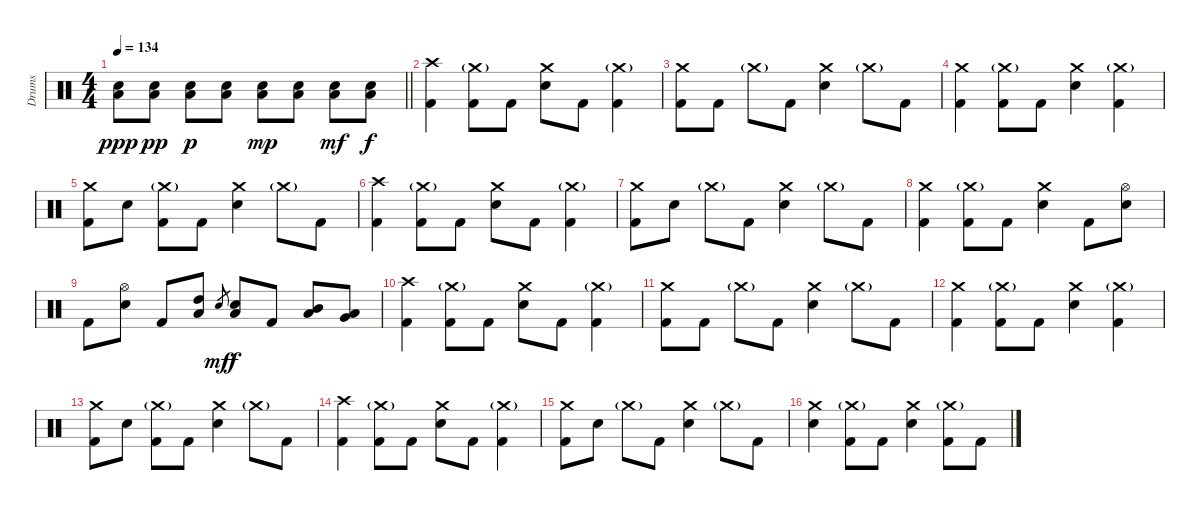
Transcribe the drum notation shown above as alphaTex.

\track ("Drums" "Drums") {instrument percussion}
\staff {score}
\articulation defaults
\ts (4 4)
\tempo 134
\clef neutral
\barLineRight lightlight
\ks c
("Low Tom (hit)" "Snare (hit) 2").8{dy ppp} ("Low Tom (hit)" "Snare (hit) 2").8{dy pp} ("Low Tom (hit)" "Snare (hit) 2").8{dy p} ("Low Tom (hit)" "Snare (hit) 2").8 ("Low Tom (hit)" "Snare (hit) 2").8{dy mp} ("Low Tom (hit)" "Snare (hit) 2").8 ("Low Tom (hit)" "Snare (hit) 2").8{dy mf} ("Low Tom (hit)" "Snare (hit) 2").8{dy f} |
("Crash high (hit)" "Kick (hit) 2").4 ("Crash medium (hit)"{g} "Kick (hit) 2").8 "Kick (hit) 2".8 ("Crash medium (hit)" "Snare (hit) 2").8 "Kick (hit) 2".8 ("Crash medium (hit)"{g} "Kick (hit) 2").4 |
("Crash medium (hit)" "Kick (hit) 2").8 "Kick (hit) 2".8 "Crash medium (hit)"{g}.8 "Kick (hit) 2".8 ("Crash medium (hit)" "Snare (hit) 2").4 "Crash medium (hit)"{g}.8 "Kick (hit) 2".8 |
("Crash medium (hit)" "Kick (hit) 2").4 ("Crash medium (hit)"{g} "Kick (hit) 2").8 "Kick (hit) 2".8 ("Crash medium (hit)" "Snare (hit) 2").4 ("Crash medium (hit)"{g} "Kick (hit) 2").4 |
("Crash medium (hit)" "Kick (hit) 2").8 "Snare (hit) 2".8 ("Crash medium (hit)"{g} "Kick (hit) 2").8 "Kick (hit) 2".8 ("Crash medium (hit)" "Snare (hit) 2").4 "Crash medium (hit)"{g}.8 "Kick (hit) 2".8 |
("Crash high (hit)" "Kick (hit) 2").4 ("Crash medium (hit)"{g} "Kick (hit) 2").8 "Kick (hit) 2".8 ("Crash medium (hit)" "Snare (hit) 2").8 "Kick (hit) 2".8 ("Crash medium (hit)"{g} "Kick (hit) 2").4 |
("Crash medium (hit)" "Kick (hit) 2").8 "Snare (hit) 2".8 "Crash medium (hit)"{g}.8 "Kick (hit) 2".8 ("Crash medium (hit)" "Snare (hit) 2").4 "Crash medium (hit)"{g}.8 "Kick (hit) 2".8 |
("Crash medium (hit)" "Kick (hit) 2").4 ("Crash medium (hit)"{g} "Kick (hit) 2").8 "Kick (hit) 2".8 ("Crash medium (hit)" "Snare (hit) 2").4 "Kick (hit) 2".8 ("Hi-Hat (open)" "Snare (hit) 2").8 |
"Kick (hit) 2".8 ("Hi-Hat (open)" "Snare (hit) 2").8 "Kick (hit) 2".8 ("High Tom (hit)" "Low Tom (hit)").8 "Snare (hit)".8{gr dy mf} ("Low Tom (hit)" "Snare (hit) 2").8{dy f} "Kick (hit) 2".8 ("Mid Tom (hit)" "Low Tom (hit)").8 ("Low Tom (hit)" "Very Low Tom (hit)").8 |
("Crash high (hit)" "Kick (hit) 2").4 ("Crash medium (hit)"{g} "Kick (hit) 2").8 "Kick (hit) 2".8 ("Crash medium (hit)" "Snare (hit) 2").8 "Kick (hit) 2".8 ("Crash medium (hit)"{g} "Kick (hit) 2").4 |
("Crash medium (hit)" "Kick (hit) 2").8 "Kick (hit) 2".8 "Crash medium (hit)"{g}.8 "Kick (hit) 2".8 ("Crash medium (hit)" "Snare (hit) 2").4 "Crash medium (hit)"{g}.8 "Kick (hit) 2".8 |
("Crash medium (hit)" "Kick (hit) 2").4 ("Crash medium (hit)"{g} "Kick (hit) 2").8 "Kick (hit) 2".8 ("Crash medium (hit)" "Snare (hit) 2").4 ("Crash medium (hit)"{g} "Kick (hit) 2").4 |
("Crash medium (hit)" "Kick (hit) 2").8 "Snare (hit) 2".8 ("Crash medium (hit)"{g} "Kick (hit) 2").8 "Kick (hit) 2".8 ("Crash medium (hit)" "Snare (hit) 2").4 "Crash medium (hit)"{g}.8 "Kick (hit) 2".8 |
("Crash high (hit)" "Kick (hit) 2").4 ("Crash medium (hit)"{g} "Kick (hit) 2").8 "Kick (hit) 2".8 ("Crash medium (hit)" "Snare (hit) 2").8 "Kick (hit) 2".8 ("Crash medium (hit)"{g} "Kick (hit) 2").4 |
("Crash medium (hit)" "Kick (hit) 2").8 "Snare (hit) 2".8 "Crash medium (hit)"{g}.8 "Kick (hit) 2".8 ("Crash medium (hit)" "Snare (hit) 2").4 "Crash medium (hit)"{g}.8 "Kick (hit) 2".8 |
("Crash medium (hit)" "Snare (hit) 2").4 ("Crash medium (hit)"{g} "Kick (hit) 2").8 "Kick (hit) 2".8 ("Crash medium (hit)" "Snare (hit) 2").4 ("Crash medium (hit)"{g} "Kick (hit) 2").8 "Kick (hit) 2".8
